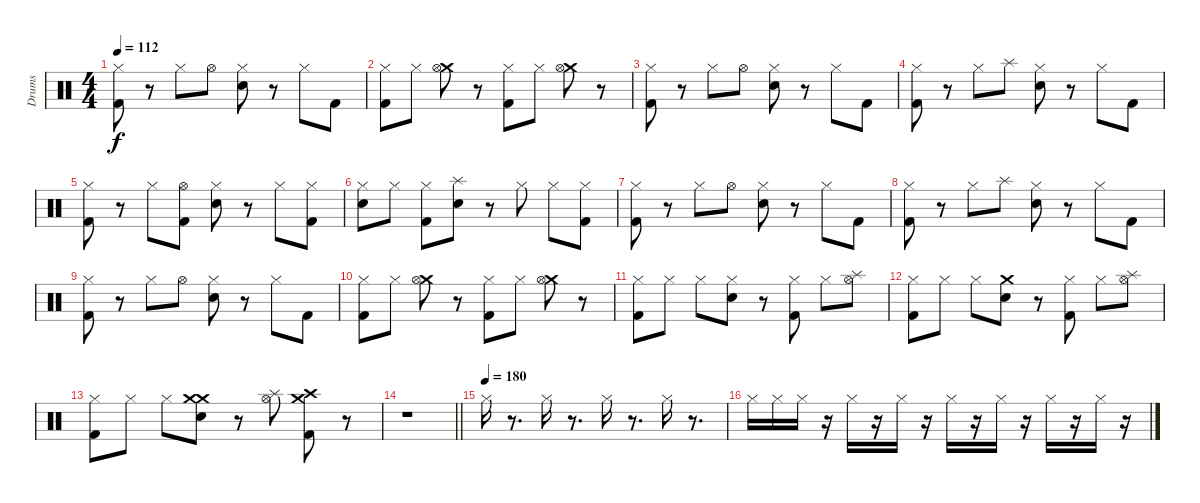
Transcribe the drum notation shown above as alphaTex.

\track ("Drums" "Drums") {instrument percussion}
\staff {score}
\articulation defaults
\ts (4 4)
\tempo 112
\clef neutral
\ks c
("Hi-Hat (closed)" "Kick (hit) 2").8{dy f} r.8 "Hi-Hat (closed)".8 "Hi-Hat (open)".8 ("Hi-Hat (closed)" "Snare (hit) 2").8 r.8 "Hi-Hat (closed)".8 "Kick (hit) 2".8 |
("Hi-Hat (closed)" "Kick (hit) 2").8 "Hi-Hat (closed)".8 ("Crash medium (hit)" "Hi-Hat (open)").8 r.8 ("Hi-Hat (closed)" "Kick (hit) 2").8 "Hi-Hat (closed)".8 ("Crash medium (hit)" "Hi-Hat (open)").8 r.8 |
("Hi-Hat (closed)" "Kick (hit) 2").8 r.8 "Hi-Hat (closed)".8 "Hi-Hat (open)".8 ("Hi-Hat (closed)" "Snare (hit) 2").8 r.8 "Hi-Hat (closed)".8 "Kick (hit) 2".8 |
("Hi-Hat (closed)" "Kick (hit) 2").8 r.8 "Hi-Hat (closed)".8 "Splash (hit)".8 ("Hi-Hat (closed)" "Snare (hit) 2").8 r.8 "Hi-Hat (closed)".8 "Kick (hit) 2".8 |
("Hi-Hat (closed)" "Kick (hit) 2").8 r.8 "Hi-Hat (closed)".8 ("Hi-Hat (open)" "Kick (hit) 2").8 ("Hi-Hat (closed)" "Snare (hit) 2").8 r.8 "Hi-Hat (closed)".8 ("Hi-Hat (closed)" "Kick (hit) 2").8 |
("Hi-Hat (closed)" "Snare (hit) 2").8 "Hi-Hat (closed)".8 ("Hi-Hat (closed)" "Kick (hit) 2").8 ("Splash (hit)" "Snare (hit) 2").8 r.8 "Hi-Hat (closed)".8 "Hi-Hat (closed)".8 ("Hi-Hat (closed)" "Kick (hit) 2").8 |
("Hi-Hat (closed)" "Kick (hit) 2").8 r.8 "Hi-Hat (closed)".8 "Hi-Hat (open)".8 ("Hi-Hat (closed)" "Snare (hit) 2").8 r.8 "Hi-Hat (closed)".8 "Kick (hit) 2".8 |
("Hi-Hat (closed)" "Kick (hit) 2").8 r.8 "Hi-Hat (closed)".8 "Splash (hit)".8 ("Hi-Hat (closed)" "Snare (hit) 2").8 r.8 "Hi-Hat (closed)".8 "Kick (hit) 2".8 |
("Hi-Hat (closed)" "Kick (hit) 2").8 r.8 "Hi-Hat (closed)".8 "Hi-Hat (open)".8 ("Hi-Hat (closed)" "Snare (hit) 2").8 r.8 "Hi-Hat (closed)".8 "Kick (hit) 2".8 |
("Hi-Hat (closed)" "Kick (hit) 2").8 "Hi-Hat (closed)".8 ("Crash medium (hit)" "Hi-Hat (open)").8 r.8 ("Hi-Hat (closed)" "Kick (hit) 2").8 "Hi-Hat (closed)".8 ("Crash medium (hit)" "Hi-Hat (open)").8 r.8 |
("Hi-Hat (closed)" "Kick (hit) 2").8 "Hi-Hat (closed)".8 "Hi-Hat (closed)".8 ("Hi-Hat (closed)" "Snare (hit) 2").8 r.8 ("Hi-Hat (closed)" "Kick (hit) 2").8 "Hi-Hat (closed)".8 ("Splash (hit)" "Hi-Hat (open)").8 |
("Hi-Hat (closed)" "Kick (hit) 2").8 "Hi-Hat (closed)".8 "Hi-Hat (closed)".8 ("Crash medium (hit)" "Snare (hit) 2").8 r.8 ("Hi-Hat (closed)" "Kick (hit) 2").8 "Hi-Hat (closed)".8 ("Splash (hit)" "Hi-Hat (open)").8 |
("Hi-Hat (closed)" "Kick (hit) 2").8 "Hi-Hat (closed)".8 "Hi-Hat (closed)".8 ("Crash medium (hit)" "Crash medium (hit)" "Snare (hit) 2").8 r.8 ("Splash (hit)" "Hi-Hat (open)").8 ("Crash medium (hit)" "Crash high (hit)" "Kick (hit) 2").8 r.8 |
\barLineRight lightlight
r.1 |
\section ("" "")
\tempo (180)
"Hi-Hat (closed)".16 r.8{d} "Hi-Hat (closed)".16 r.8{d} "Hi-Hat (closed)".16 r.8{d} "Hi-Hat (closed)".16 r.8{d} |
"Hi-Hat (closed)".16 "Hi-Hat (closed)".16 "Hi-Hat (closed)".16 r.16 "Hi-Hat (closed)".16 r.16 "Hi-Hat (closed)".16 r.16 "Hi-Hat (closed)".16 r.16 "Hi-Hat (closed)".16 r.16 "Hi-Hat (closed)".16 r.16 "Hi-Hat (closed)".16 r.16
